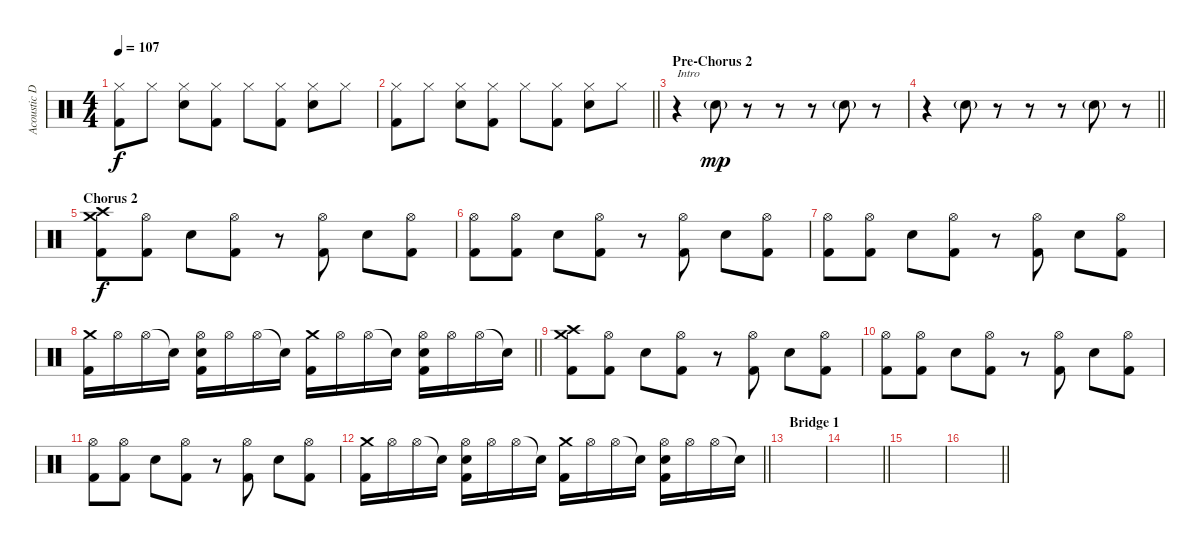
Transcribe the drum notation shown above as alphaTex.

\track ("Acoustic Drums" "Acoustic D") {instrument percussion}
\staff {score}
\articulation defaults
\ts (4 4)
\tempo 107
\clef neutral
\ks c
("Hi-Hat (closed)" "Kick (hit) 2").8{dy f} "Hi-Hat (closed)".8 ("Hi-Hat (closed)" "Snare (hit) 2").8 ("Hi-Hat (closed)" "Kick (hit) 2").8 "Hi-Hat (closed)".8 ("Hi-Hat (closed)" "Kick (hit) 2").8 ("Hi-Hat (closed)" "Snare (hit) 2").8 "Hi-Hat (closed)".8 |
\barLineRight lightlight
("Hi-Hat (closed)" "Kick (hit) 2").8 "Hi-Hat (closed)".8 ("Hi-Hat (closed)" "Snare (hit) 2").8 ("Hi-Hat (closed)" "Kick (hit) 2").8 "Hi-Hat (closed)".8 ("Hi-Hat (closed)" "Kick (hit) 2").8 ("Hi-Hat (closed)" "Snare (hit) 2").8 "Hi-Hat (closed)".8 |
\section ("" "Pre-Chorus 2")
r.4{txt "Intro"} "Snare (hit) 2"{g}.8{dy mp} r.8 r.8 r.8 "Snare (hit) 2"{g}.8 r.8 |
\barLineRight lightlight
r.4 "Snare (hit) 2"{g}.8 r.8 r.8 r.8 "Snare (hit) 2"{g}.8 r.8 |
\section ("" "Chorus 2")
("Crash medium (hit)" "Crash high (hit)" "Kick (hit) 2").8{dy f} ("Hi-Hat (open)" "Kick (hit) 2").8 "Snare (hit) 2".8 ("Hi-Hat (open)" "Kick (hit) 2").8 r.8 ("Hi-Hat (open)" "Kick (hit) 2").8 "Snare (hit) 2".8 ("Hi-Hat (open)" "Kick (hit) 2").8 |
("Hi-Hat (open)" "Kick (hit) 2").8 ("Hi-Hat (open)" "Kick (hit) 2").8 "Snare (hit) 2".8 ("Hi-Hat (open)" "Kick (hit) 2").8 r.8 ("Hi-Hat (open)" "Kick (hit) 2").8 "Snare (hit) 2".8 ("Hi-Hat (open)" "Kick (hit) 2").8 |
("Hi-Hat (open)" "Kick (hit) 2").8 ("Hi-Hat (open)" "Kick (hit) 2").8 "Snare (hit) 2".8 ("Hi-Hat (open)" "Kick (hit) 2").8 r.8 ("Hi-Hat (open)" "Kick (hit) 2").8 "Snare (hit) 2".8 ("Hi-Hat (open)" "Kick (hit) 2").8 |
\barLineRight lightlight
("Crash medium (hit)" "Kick (hit) 2").16 "Hi-Hat (open)".16 "Hi-Hat (open)".16 "Snare (hit)"{t}.16 ("Hi-Hat (open)" "Snare (hit) 2" "Kick (hit) 2").16 "Hi-Hat (open)".16 "Hi-Hat (open)".16 "Snare (hit)"{t}.16 ("Crash medium (hit)" "Kick (hit) 2").16 "Hi-Hat (open)".16 "Hi-Hat (open)".16 "Snare (hit)"{t}.16 ("Hi-Hat (open)" "Snare (hit) 2" "Kick (hit) 2").16 "Hi-Hat (open)".16 "Hi-Hat (open)".16 "Snare (hit)"{t}.16 |
("Crash medium (hit)" "Crash high (hit)" "Kick (hit) 2").8 ("Hi-Hat (open)" "Kick (hit) 2").8 "Snare (hit) 2".8 ("Hi-Hat (open)" "Kick (hit) 2").8 r.8 ("Hi-Hat (open)" "Kick (hit) 2").8 "Snare (hit) 2".8 ("Hi-Hat (open)" "Kick (hit) 2").8 |
("Hi-Hat (open)" "Kick (hit) 2").8 ("Hi-Hat (open)" "Kick (hit) 2").8 "Snare (hit) 2".8 ("Hi-Hat (open)" "Kick (hit) 2").8 r.8 ("Hi-Hat (open)" "Kick (hit) 2").8 "Snare (hit) 2".8 ("Hi-Hat (open)" "Kick (hit) 2").8 |
("Hi-Hat (open)" "Kick (hit) 2").8 ("Hi-Hat (open)" "Kick (hit) 2").8 "Snare (hit) 2".8 ("Hi-Hat (open)" "Kick (hit) 2").8 r.8 ("Hi-Hat (open)" "Kick (hit) 2").8 "Snare (hit) 2".8 ("Hi-Hat (open)" "Kick (hit) 2").8 |
\barLineRight lightlight
("Crash medium (hit)" "Kick (hit) 2").16 "Hi-Hat (open)".16 "Hi-Hat (open)".16 "Snare (hit)"{t}.16 ("Hi-Hat (open)" "Snare (hit) 2" "Kick (hit) 2").16 "Hi-Hat (open)".16 "Hi-Hat (open)".16 "Snare (hit)"{t}.16 ("Crash medium (hit)" "Kick (hit) 2").16 "Hi-Hat (open)".16 "Hi-Hat (open)".16 "Snare (hit)"{t}.16 ("Hi-Hat (open)" "Snare (hit) 2" "Kick (hit) 2").16 "Hi-Hat (open)".16 "Hi-Hat (open)".16 "Snare (hit)"{t}.16 |
\section ("" "Bridge 1")
|
\barLineRight lightlight
|
|
\barLineRight lightlight
